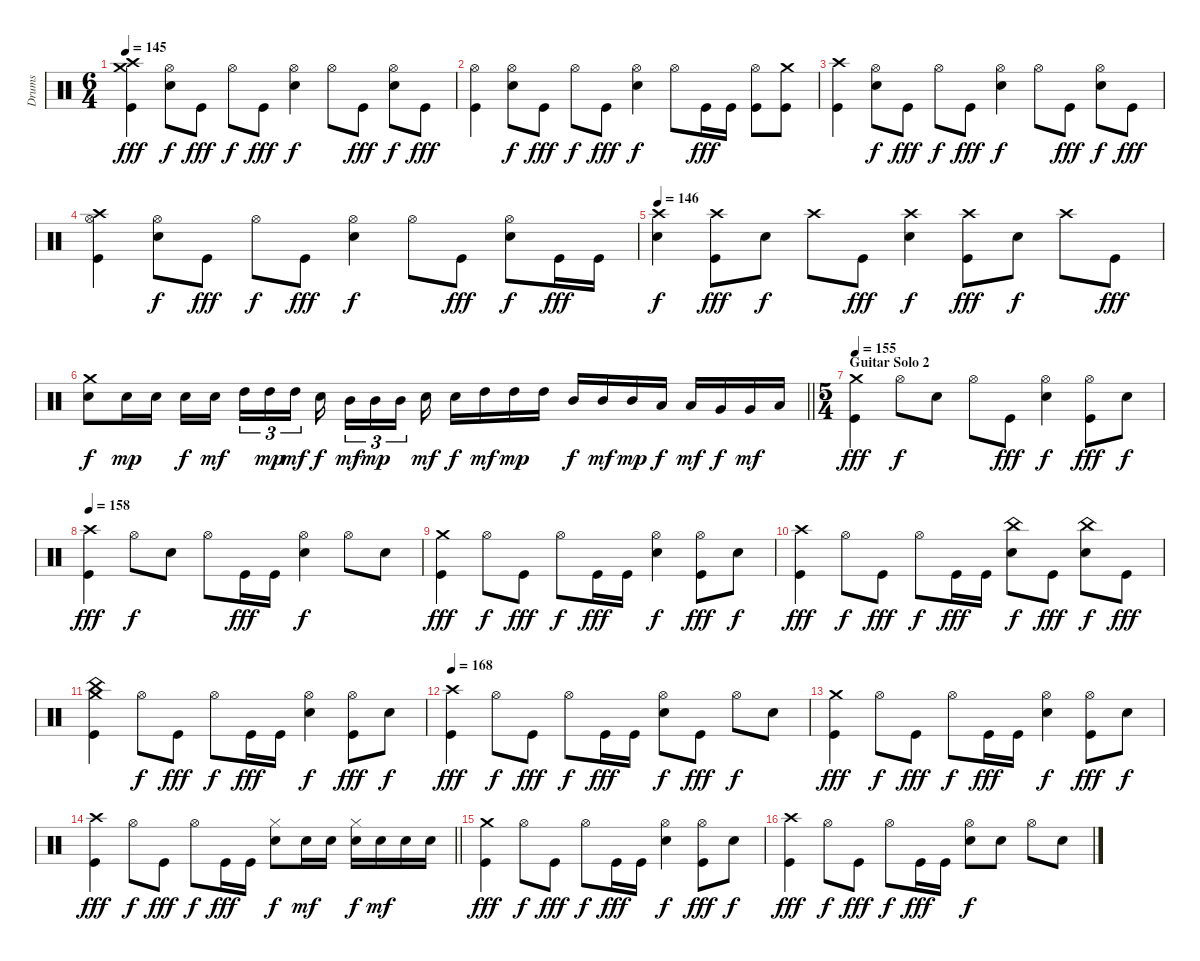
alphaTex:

\track ("Drums" "Drums") {instrument percussion}
\staff {score}
\articulation defaults
\ts (6 4)
\tempo 145
\clef neutral
\ks c
("Crash medium (hit)" "Crash high (hit)" "Kick (hit)").4{dy fff} ("Hi-Hat (open)" "Electric Snare (hit)").8{dy f} "Kick (hit)".8{dy fff} "Hi-Hat (open)".8{dy f} "Kick (hit)".8{dy fff} ("Hi-Hat (open)" "Electric Snare (hit)").4{dy f} "Hi-Hat (open)".8 "Kick (hit)".8{dy fff} ("Hi-Hat (open)" "Electric Snare (hit)").8{dy f} "Kick (hit)".8{dy fff} |
("Hi-Hat (open)" "Kick (hit)").4 ("Hi-Hat (open)" "Electric Snare (hit)").8{dy f} "Kick (hit)".8{dy fff} "Hi-Hat (open)".8{dy f} "Kick (hit)".8{dy fff} ("Hi-Hat (open)" "Electric Snare (hit)").4{dy f} "Hi-Hat (open)".8 "Kick (hit)".16{dy fff} "Kick (hit)".16 ("Hi-Hat (open)" "Kick (hit)").8 ("Crash medium (hit)" "Kick (hit)").8 |
("Crash high (hit)" "Kick (hit)").4 ("Hi-Hat (open)" "Electric Snare (hit)").8{dy f} "Kick (hit)".8{dy fff} "Hi-Hat (open)".8{dy f} "Kick (hit)".8{dy fff} ("Hi-Hat (open)" "Electric Snare (hit)").4{dy f} "Hi-Hat (open)".8 "Kick (hit)".8{dy fff} ("Hi-Hat (open)" "Electric Snare (hit)").8{dy f} "Kick (hit)".8{dy fff} |
("Crash high (hit)" "Hi-Hat (open)" "Kick (hit)").4 ("Hi-Hat (open)" "Electric Snare (hit)").8{dy f} "Kick (hit)".8{dy fff} "Hi-Hat (open)".8{dy f} "Kick (hit)".8{dy fff} ("Hi-Hat (open)" "Electric Snare (hit)").4{dy f} "Hi-Hat (open)".8 "Kick (hit)".8{dy fff} ("Hi-Hat (open)" "Electric Snare (hit)").8{dy f} "Kick (hit)".16{dy fff} "Kick (hit)".16 |
\tempo 146
("Crash high (hit)" "Electric Snare (hit)").4{dy f} ("Crash high (hit)" "Kick (hit)").8{dy fff} "Electric Snare (hit)".8{dy f} "Crash high (hit)".8 "Kick (hit)".8{dy fff} ("Crash high (hit)" "Electric Snare (hit)").4{dy f} ("Crash high (hit)" "Kick (hit)").8{dy fff} "Electric Snare (hit)".8{dy f} "Crash high (hit)".8 "Kick (hit)".8{dy fff} |
\barLineRight lightlight
("Crash medium (hit)" "Electric Snare (hit)").8{dy f} "Electric Snare (hit)".16{dy mp} "Electric Snare (hit)".16 "Electric Snare (hit)".16{dy f} "Electric Snare (hit)".16{dy mf beam splitsecondary} "High Tom (hit)".16{tu (3 2)} "High Tom (hit)".16{tu (3 2) dy mp} "High Tom (hit)".16{tu (3 2) dy mf beam splitsecondary} "Electric Snare (hit)".16{dy f beam splitsecondary} "Mid Tom (hit)".16{tu (3 2) dy mf} "Mid Tom (hit)".16{tu (3 2) dy mp} "Mid Tom (hit)".16{tu (3 2) beam splitsecondary} "Electric Snare (hit)".16{dy mf} "Electric Snare (hit)".16{dy f} "High Tom (hit)".16{dy mf} "High Tom (hit)".16{dy mp} "High Tom (hit)".16 "Mid Tom (hit)".16{dy f} "Mid Tom (hit)".16{dy mf} "Mid Tom (hit)".16{dy mp} "Low Tom (hit)".16{dy f} "Low Tom (hit)".16{dy mf} "Very Low Tom (hit)".16{dy f} "Very Low Tom (hit)".16{dy mf} "Low Floor Tom (hit)".16 |
\ts (5 4)
\section ("" "Guitar Solo 2")
\tempo 155
("Crash medium (hit)" "Kick (hit)").4{dy fff} "Hi-Hat (open)".8{dy f} "Electric Snare (hit)".8 "Hi-Hat (open)".8 "Kick (hit)".8{dy fff} ("Hi-Hat (open)" "Electric Snare (hit)").4{dy f} ("Hi-Hat (open)" "Kick (hit)").8{dy fff} "Electric Snare (hit)".8{dy f} |
\tempo 158
("Crash high (hit)" "Kick (hit)").4{dy fff} "Hi-Hat (open)".8{dy f} "Electric Snare (hit)".8 "Hi-Hat (open)".8 "Kick (hit)".16{dy fff} "Kick (hit)".16 ("Hi-Hat (open)" "Electric Snare (hit)").4{dy f} "Hi-Hat (open)".8 "Electric Snare (hit)".8 |
("Crash medium (hit)" "Kick (hit)").4{dy fff} "Hi-Hat (open)".8{dy f} "Kick (hit)".8{dy fff} "Hi-Hat (open)".8{dy f} "Kick (hit)".16{dy fff} "Kick (hit)".16 ("Hi-Hat (open)" "Electric Snare (hit)").4{dy f} ("Hi-Hat (open)" "Kick (hit)").8{dy fff} "Electric Snare (hit)".8{dy f} |
("Crash high (hit)" "Kick (hit)").4{dy fff} "Hi-Hat (open)".8{dy f} "Kick (hit)".8{dy fff} "Hi-Hat (open)".8{dy f} "Kick (hit)".16{dy fff} "Kick (hit)".16 ("China (hit)" "Electric Snare (hit)").8{dy f} "Kick (hit)".8{dy fff} ("China (hit)" "Electric Snare (hit)").8{dy f} "Kick (hit)".8{dy fff} |
("Crash medium (hit)" "China (hit)" "Kick (hit)").4 "Hi-Hat (open)".8{dy f} "Kick (hit)".8{dy fff} "Hi-Hat (open)".8{dy f} "Kick (hit)".16{dy fff} "Kick (hit)".16 ("Hi-Hat (open)" "Electric Snare (hit)").4{dy f} ("Hi-Hat (open)" "Kick (hit)").8{dy fff} "Electric Snare (hit)".8{dy f} |
\tempo 168
("Crash high (hit)" "Kick (hit)").4{dy fff} "Hi-Hat (open)".8{dy f} "Kick (hit)".8{dy fff} "Hi-Hat (open)".8{dy f} "Kick (hit)".16{dy fff} "Kick (hit)".16 ("Hi-Hat (open)" "Electric Snare (hit)").8{dy f} "Kick (hit)".8{dy fff} "Hi-Hat (open)".8{dy f} "Electric Snare (hit)".8 |
("Crash medium (hit)" "Kick (hit)").4{dy fff} "Hi-Hat (open)".8{dy f} "Kick (hit)".8{dy fff} "Hi-Hat (open)".8{dy f} "Kick (hit)".16{dy fff} "Kick (hit)".16 ("Hi-Hat (open)" "Electric Snare (hit)").4{dy f} ("Hi-Hat (open)" "Kick (hit)").8{dy fff} "Electric Snare (hit)".8{dy f} |
\barLineRight lightlight
("Crash high (hit)" "Kick (hit)").4{dy fff} "Hi-Hat (open)".8{dy f} "Kick (hit)".8{dy fff} "Hi-Hat (open)".8{dy f} "Kick (hit)".16{dy fff} "Kick (hit)".16 ("Hi-Hat (closed)" "Electric Snare (hit)").8{dy f} "Electric Snare (hit)".16{dy mf} "Electric Snare (hit)".16 ("Hi-Hat (closed)" "Electric Snare (hit)").16{dy f} "Electric Snare (hit)".16{dy mf} "Electric Snare (hit)".16 "Electric Snare (hit)".16 |
("Crash medium (hit)" "Kick (hit)").4{dy fff} "Hi-Hat (open)".8{dy f} "Kick (hit)".8{dy fff} "Hi-Hat (open)".8{dy f} "Kick (hit)".16{dy fff} "Kick (hit)".16 ("Hi-Hat (open)" "Electric Snare (hit)").4{dy f} ("Hi-Hat (open)" "Kick (hit)").8{dy fff} "Electric Snare (hit)".8{dy f} |
("Crash high (hit)" "Kick (hit)").4{dy fff} "Hi-Hat (open)".8{dy f} "Kick (hit)".8{dy fff} "Hi-Hat (open)".8{dy f} "Kick (hit)".16{dy fff} "Kick (hit)".16 ("Hi-Hat (open)" "Electric Snare (hit)").8{dy f} "Electric Snare (hit)".8 "Hi-Hat (open)".8 "Electric Snare (hit)".8
